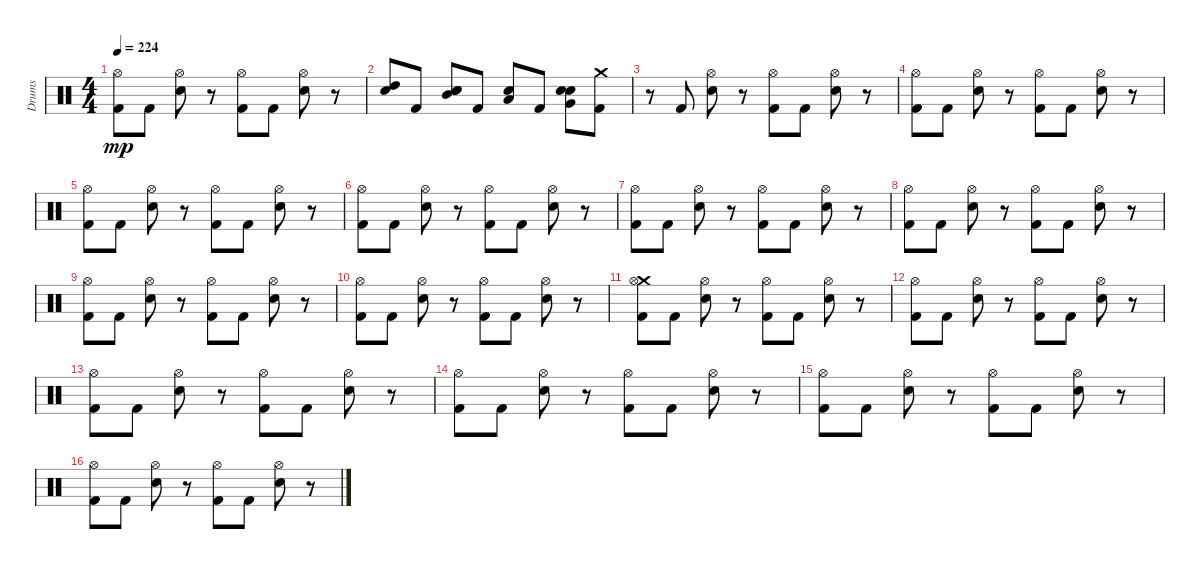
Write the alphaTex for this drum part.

\track ("Drums" "Drums") {instrument percussion}
\staff {score}
\articulation defaults
\ts (4 4)
\tempo 224
\clef neutral
\ks c
("Kick (hit) 2" "Hi-Hat (open)").8{dy mp} "Kick (hit) 2".8 ("Electric Snare (hit)" "Hi-Hat (open)").8 r.8 ("Hi-Hat (open)" "Kick (hit) 2").8 "Kick (hit) 2".8 ("Electric Snare (hit)" "Hi-Hat (open)").8 r.8 |
("High Tom (hit)" "Electric Snare (hit)").8 "Kick (hit) 2".8 ("Mid Tom (hit)" "Electric Snare (hit)" "Electric Snare (hit)").8 "Kick (hit) 2".8 ("Electric Snare (hit)" "Low Tom (hit)").8 "Kick (hit) 2".8 ("Very Low Tom (hit)" "Electric Snare (hit)" "Electric Snare (hit)").8 ("Kick (hit) 2" "Crash medium (hit)").8 |
r.8 "Kick (hit) 2".8 ("Electric Snare (hit)" "Hi-Hat (open)").8 r.8 ("Kick (hit) 2" "Hi-Hat (open)").8 "Kick (hit) 2".8 ("Electric Snare (hit)" "Hi-Hat (open)").8 r.8 |
("Kick (hit) 2" "Hi-Hat (open)").8 "Kick (hit) 2".8 ("Electric Snare (hit)" "Hi-Hat (open)").8 r.8 ("Kick (hit) 2" "Hi-Hat (open)").8 "Kick (hit) 2".8 ("Hi-Hat (open)" "Electric Snare (hit)").8 r.8 |
("Kick (hit) 2" "Hi-Hat (open)").8 "Kick (hit) 2".8 ("Hi-Hat (open)" "Electric Snare (hit)").8 r.8 ("Hi-Hat (open)" "Kick (hit) 2").8 "Kick (hit) 2".8 ("Electric Snare (hit)" "Hi-Hat (open)").8 r.8 |
("Kick (hit) 2" "Hi-Hat (open)").8 "Kick (hit) 2".8 ("Electric Snare (hit)" "Hi-Hat (open)").8 r.8 ("Kick (hit) 2" "Hi-Hat (open)").8 "Kick (hit) 2".8 ("Electric Snare (hit)" "Hi-Hat (open)").8 r.8 |
("Hi-Hat (open)" "Kick (hit) 2").8 "Kick (hit) 2".8 ("Hi-Hat (open)" "Electric Snare (hit)").8 r.8 ("Hi-Hat (open)" "Kick (hit) 2").8 "Kick (hit) 2".8 ("Hi-Hat (open)" "Electric Snare (hit)").8 r.8 |
("Kick (hit) 2" "Hi-Hat (open)").8 "Kick (hit) 2".8 ("Electric Snare (hit)" "Hi-Hat (open)").8 r.8 ("Hi-Hat (open)" "Kick (hit) 2").8 "Kick (hit) 2".8 ("Electric Snare (hit)" "Hi-Hat (open)").8 r.8 |
("Hi-Hat (open)" "Kick (hit) 2").8 "Kick (hit) 2".8 ("Electric Snare (hit)" "Hi-Hat (open)").8 r.8 ("Kick (hit) 2" "Hi-Hat (open)").8 "Kick (hit) 2".8 ("Hi-Hat (open)" "Electric Snare (hit)").8 r.8 |
("Kick (hit) 2" "Hi-Hat (open)").8 "Kick (hit) 2".8 ("Hi-Hat (open)" "Electric Snare (hit)").8 r.8 ("Hi-Hat (open)" "Kick (hit) 2").8 "Kick (hit) 2".8 ("Electric Snare (hit)" "Hi-Hat (open)").8 r.8 |
("Crash medium (hit)" "Kick (hit) 2" "Hi-Hat (open)").8 "Kick (hit) 2".8 ("Electric Snare (hit)" "Hi-Hat (open)").8 r.8 ("Hi-Hat (open)" "Kick (hit) 2").8 "Kick (hit) 2".8 ("Electric Snare (hit)" "Hi-Hat (open)").8 r.8 |
("Kick (hit) 2" "Hi-Hat (open)").8 "Kick (hit) 2".8 ("Electric Snare (hit)" "Hi-Hat (open)").8 r.8 ("Kick (hit) 2" "Hi-Hat (open)").8 "Kick (hit) 2".8 ("Hi-Hat (open)" "Electric Snare (hit)").8 r.8 |
("Kick (hit) 2" "Hi-Hat (open)").8 "Kick (hit) 2".8 ("Electric Snare (hit)" "Hi-Hat (open)").8 r.8 ("Hi-Hat (open)" "Kick (hit) 2").8 "Kick (hit) 2".8 ("Hi-Hat (open)" "Electric Snare (hit)").8 r.8 |
("Hi-Hat (open)" "Kick (hit) 2").8 "Kick (hit) 2".8 ("Hi-Hat (open)" "Electric Snare (hit)").8 r.8 ("Kick (hit) 2" "Hi-Hat (open)").8 "Kick (hit) 2".8 ("Electric Snare (hit)" "Hi-Hat (open)").8 r.8 |
("Kick (hit) 2" "Hi-Hat (open)").8 "Kick (hit) 2".8 ("Electric Snare (hit)" "Hi-Hat (open)").8 r.8 ("Kick (hit) 2" "Hi-Hat (open)").8 "Kick (hit) 2".8 ("Hi-Hat (open)" "Electric Snare (hit)").8 r.8 |
("Kick (hit) 2" "Hi-Hat (open)").8 "Kick (hit) 2".8 ("Hi-Hat (open)" "Electric Snare (hit)").8 r.8 ("Kick (hit) 2" "Hi-Hat (open)").8 "Kick (hit) 2".8 ("Electric Snare (hit)" "Hi-Hat (open)").8 r.8
